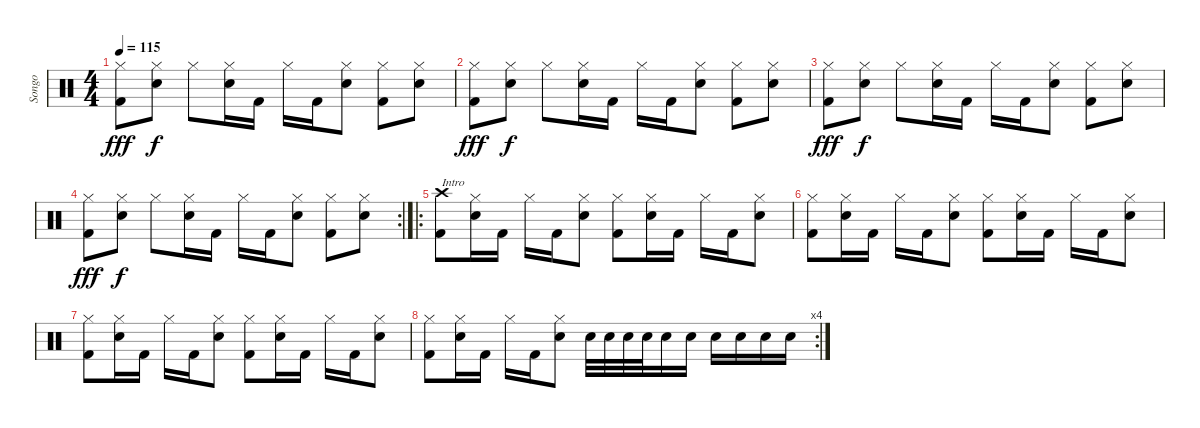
\track ("Songo" "Songo") {instrument percussion}
\staff {score}
\articulation defaults
\ts (4 4)
\tempo 115
\clef neutral
\ks c
("Hi-Hat (closed)" "Kick (hit) 2").8{dy fff} ("Hi-Hat (closed)" "Electric Snare (hit)").8{dy f} "Hi-Hat (closed)".8 ("Hi-Hat (closed)" "Electric Snare (hit)").16 "Kick (hit) 2".16 "Hi-Hat (closed)".16 "Kick (hit) 2".16 ("Hi-Hat (closed)" "Electric Snare (hit)").8 ("Hi-Hat (closed)" "Kick (hit) 2").8 ("Hi-Hat (closed)" "Electric Snare (hit)").8 |
("Hi-Hat (closed)" "Kick (hit) 2").8{dy fff} ("Hi-Hat (closed)" "Electric Snare (hit)").8{dy f} "Hi-Hat (closed)".8 ("Hi-Hat (closed)" "Electric Snare (hit)").16 "Kick (hit) 2".16 "Hi-Hat (closed)".16 "Kick (hit) 2".16 ("Hi-Hat (closed)" "Electric Snare (hit)").8 ("Hi-Hat (closed)" "Kick (hit) 2").8 ("Hi-Hat (closed)" "Electric Snare (hit)").8 |
("Hi-Hat (closed)" "Kick (hit) 2").8{dy fff} ("Hi-Hat (closed)" "Electric Snare (hit)").8{dy f} "Hi-Hat (closed)".8 ("Hi-Hat (closed)" "Electric Snare (hit)").16 "Kick (hit) 2".16 "Hi-Hat (closed)".16 "Kick (hit) 2".16 ("Hi-Hat (closed)" "Electric Snare (hit)").8 ("Hi-Hat (closed)" "Kick (hit) 2").8 ("Hi-Hat (closed)" "Electric Snare (hit)").8 |
\rc 2
("Hi-Hat (closed)" "Kick (hit) 2").8{dy fff} ("Hi-Hat (closed)" "Electric Snare (hit)").8{dy f} "Hi-Hat (closed)".8 ("Hi-Hat (closed)" "Electric Snare (hit)").16 "Kick (hit) 2".16 "Hi-Hat (closed)".16 "Kick (hit) 2".16 ("Hi-Hat (closed)" "Electric Snare (hit)").8 ("Hi-Hat (closed)" "Kick (hit) 2").8 ("Hi-Hat (closed)" "Electric Snare (hit)").8 |
\ro
("Kick (hit) 2" "Crash high (hit)").8{txt "Intro"} ("Snare (hit) 2" "Hi-Hat (closed)").16 "Kick (hit) 2".16 "Hi-Hat (closed)".16 "Kick (hit) 2".16 ("Snare (hit) 2" "Hi-Hat (closed)").8 ("Kick (hit) 2" "Hi-Hat (closed)").8 ("Snare (hit) 2" "Hi-Hat (closed)").16 "Kick (hit) 2".16 "Hi-Hat (closed)".16 "Kick (hit) 2".16 ("Snare (hit) 2" "Hi-Hat (closed)").8 |
("Kick (hit) 2" "Hi-Hat (closed)").8 ("Snare (hit) 2" "Hi-Hat (closed)").16 "Kick (hit) 2".16 "Hi-Hat (closed)".16 "Kick (hit) 2".16 ("Snare (hit) 2" "Hi-Hat (closed)").8 ("Kick (hit) 2" "Hi-Hat (closed)").8 ("Snare (hit) 2" "Hi-Hat (closed)").16 "Kick (hit) 2".16 "Hi-Hat (closed)".16 "Kick (hit) 2".16 ("Snare (hit) 2" "Hi-Hat (closed)").8 |
("Kick (hit) 2" "Hi-Hat (closed)").8 ("Snare (hit) 2" "Hi-Hat (closed)").16 "Kick (hit) 2".16 "Hi-Hat (closed)".16 "Kick (hit) 2".16 ("Snare (hit) 2" "Hi-Hat (closed)").8 ("Kick (hit) 2" "Hi-Hat (closed)").8 ("Snare (hit) 2" "Hi-Hat (closed)").16 "Kick (hit) 2".16 "Hi-Hat (closed)".16 "Kick (hit) 2".16 ("Snare (hit) 2" "Hi-Hat (closed)").8 |
\rc 4
("Kick (hit) 2" "Hi-Hat (closed)").8 ("Snare (hit) 2" "Hi-Hat (closed)").16 "Kick (hit) 2".16 "Hi-Hat (closed)".16 "Kick (hit) 2".16 ("Snare (hit) 2" "Hi-Hat (closed)").8 "Snare (hit) 2".32 "Snare (hit) 2".32 "Snare (hit) 2".32 "Snare (hit) 2".32 "Snare (hit) 2".16 "Snare (hit) 2".16 "Snare (hit) 2".16 "Snare (hit) 2".16 "Snare (hit) 2".16 "Snare (hit) 2".16
